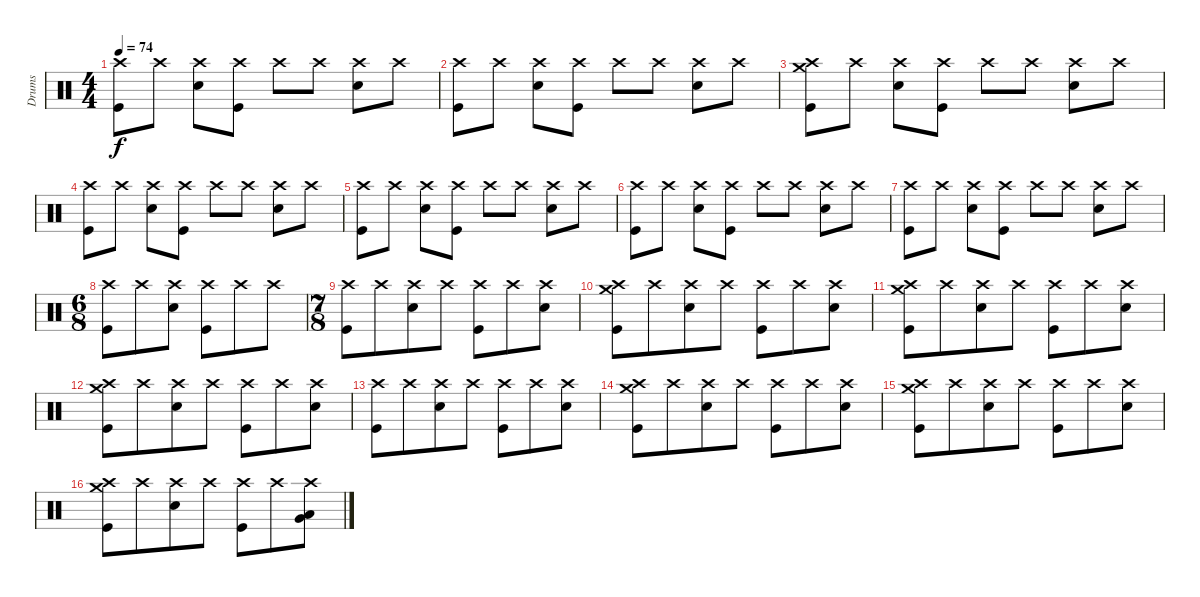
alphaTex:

\track ("Drums" "Drums") {instrument percussion}
\staff {score}
\articulation defaults
\ts (4 4)
\tempo 74
\clef neutral
\ks c
("Crash high (hit)" "Kick (hit)").8{dy f} "Crash high (hit)".8 ("Crash high (hit)" "Snare (hit) 2").8 ("Crash high (hit)" "Kick (hit)").8 "Crash high (hit)".8 "Crash high (hit)".8 ("Crash high (hit)" "Snare (hit) 2").8 "Crash high (hit)".8 |
("Crash high (hit)" "Kick (hit)").8 "Crash high (hit)".8 ("Crash high (hit)" "Snare (hit) 2").8 ("Crash high (hit)" "Kick (hit)").8 "Crash high (hit)".8 "Crash high (hit)".8 ("Crash high (hit)" "Snare (hit) 2").8 "Crash high (hit)".8 |
("Crash high (hit)" "Crash medium (hit)" "Kick (hit)").8 "Crash high (hit)".8 ("Crash high (hit)" "Snare (hit) 2").8 ("Crash high (hit)" "Kick (hit)").8 "Crash high (hit)".8 "Crash high (hit)".8 ("Crash high (hit)" "Snare (hit) 2").8 "Crash high (hit)".8 |
("Crash high (hit)" "Kick (hit)").8 "Crash high (hit)".8 ("Crash high (hit)" "Snare (hit) 2").8 ("Crash high (hit)" "Kick (hit)").8 "Crash high (hit)".8 "Crash high (hit)".8 ("Crash high (hit)" "Snare (hit) 2").8 "Crash high (hit)".8 |
("Crash high (hit)" "Kick (hit)").8 "Crash high (hit)".8 ("Crash high (hit)" "Snare (hit) 2").8 ("Crash high (hit)" "Kick (hit)").8 "Crash high (hit)".8 "Crash high (hit)".8 ("Crash high (hit)" "Snare (hit) 2").8 "Crash high (hit)".8 |
("Crash high (hit)" "Kick (hit)").8 "Crash high (hit)".8 ("Crash high (hit)" "Snare (hit) 2").8 ("Crash high (hit)" "Kick (hit)").8 "Crash high (hit)".8 "Crash high (hit)".8 ("Crash high (hit)" "Snare (hit) 2").8 "Crash high (hit)".8 |
("Crash high (hit)" "Kick (hit)").8 "Crash high (hit)".8 ("Crash high (hit)" "Snare (hit) 2").8 ("Crash high (hit)" "Kick (hit)").8 "Crash high (hit)".8 "Crash high (hit)".8 ("Crash high (hit)" "Snare (hit) 2").8 "Crash high (hit)".8 |
\ts (6 8)
("Crash high (hit)" "Kick (hit)").8 "Crash high (hit)".8 ("Crash high (hit)" "Snare (hit) 2").8 ("Crash high (hit)" "Kick (hit)").8 "Crash high (hit)".8 "Crash high (hit)".8 |
\ts (7 8)
("Crash high (hit)" "Kick (hit)").8 "Crash high (hit)".8 ("Crash high (hit)" "Snare (hit) 2").8 "Crash high (hit)".8 ("Crash high (hit)" "Kick (hit)").8 "Crash high (hit)".8 ("Crash high (hit)" "Snare (hit) 2").8 |
("Crash high (hit)" "Crash medium (hit)" "Kick (hit)").8 "Crash high (hit)".8 ("Crash high (hit)" "Snare (hit) 2").8 "Crash high (hit)".8 ("Crash high (hit)" "Kick (hit)").8 "Crash high (hit)".8 ("Crash high (hit)" "Snare (hit) 2").8 |
("Crash high (hit)" "Crash medium (hit)" "Kick (hit)").8 "Crash high (hit)".8 ("Crash high (hit)" "Snare (hit) 2").8 "Crash high (hit)".8 ("Crash high (hit)" "Kick (hit)").8 "Crash high (hit)".8 ("Crash high (hit)" "Snare (hit) 2").8 |
("Crash high (hit)" "Crash medium (hit)" "Kick (hit)").8 "Crash high (hit)".8 ("Crash high (hit)" "Snare (hit) 2").8 "Crash high (hit)".8 ("Crash high (hit)" "Kick (hit)").8 "Crash high (hit)".8 ("Crash high (hit)" "Snare (hit) 2").8 |
("Crash high (hit)" "Kick (hit)").8 "Crash high (hit)".8 ("Crash high (hit)" "Snare (hit) 2").8 "Crash high (hit)".8 ("Crash high (hit)" "Kick (hit)").8 "Crash high (hit)".8 ("Crash high (hit)" "Snare (hit) 2").8 |
("Crash high (hit)" "Crash medium (hit)" "Kick (hit)").8 "Crash high (hit)".8 ("Crash high (hit)" "Snare (hit) 2").8 "Crash high (hit)".8 ("Crash high (hit)" "Kick (hit)").8 "Crash high (hit)".8 ("Crash high (hit)" "Snare (hit) 2").8 |
("Crash high (hit)" "Crash medium (hit)" "Kick (hit)").8 "Crash high (hit)".8 ("Crash high (hit)" "Snare (hit) 2").8 "Crash high (hit)".8 ("Crash high (hit)" "Kick (hit)").8 "Crash high (hit)".8 ("Crash high (hit)" "Snare (hit) 2").8 |
("Crash high (hit)" "Crash medium (hit)" "Kick (hit)").8 "Crash high (hit)".8 ("Crash high (hit)" "Snare (hit) 2").8 "Crash high (hit)".8 ("Crash high (hit)" "Kick (hit)").8 "Crash high (hit)".8 ("Crash high (hit)" "Low Tom (hit)" "Very Low Tom (hit)").8
